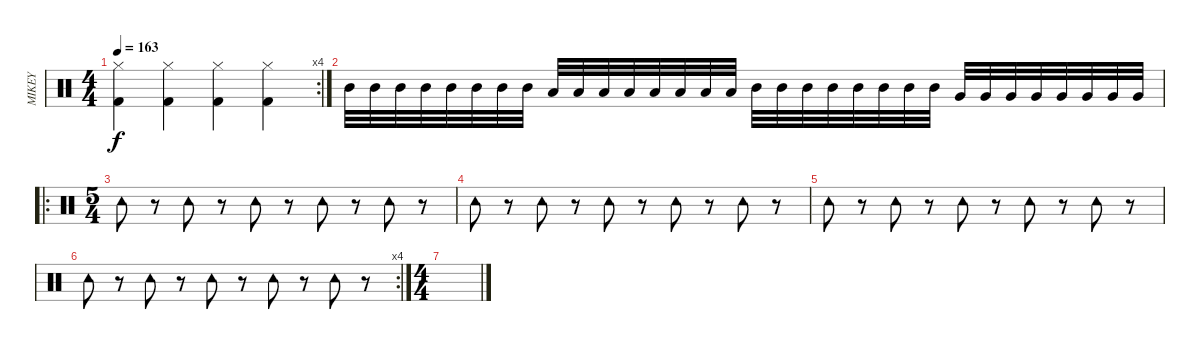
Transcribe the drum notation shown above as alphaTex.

\track ("MIKEY" "MIKEY") {instrument percussion}
\staff {score}
\articulation defaults
\rc 4
\ts (4 4)
\tempo 163
\clef neutral
\ks c
("Hi-Hat (closed)" "Kick (hit) 2").4{dy f} ("Hi-Hat (closed)" "Kick (hit) 2").4 ("Hi-Hat (closed)" "Kick (hit) 2").4 ("Hi-Hat (closed)" "Kick (hit) 2").4 |
"Mid Tom (hit)".32 "Mid Tom (hit)".32 "Mid Tom (hit)".32 "Mid Tom (hit)".32 "Mid Tom (hit)".32 "Mid Tom (hit)".32 "Mid Tom (hit)".32 "Mid Tom (hit)".32 "Low Tom (hit)".32 "Low Tom (hit)".32 "Low Tom (hit)".32 "Low Tom (hit)".32 "Low Tom (hit)".32 "Low Tom (hit)".32 "Low Tom (hit)".32 "Low Tom (hit)".32 "Mid Tom (hit)".32 "Mid Tom (hit)".32 "Mid Tom (hit)".32 "Mid Tom (hit)".32 "Mid Tom (hit)".32 "Mid Tom (hit)".32 "Mid Tom (hit)".32 "Mid Tom (hit)".32 "Very Low Tom (hit)".32 "Very Low Tom (hit)".32 "Very Low Tom (hit)".32 "Very Low Tom (hit)".32 "Very Low Tom (hit)".32 "Very Low Tom (hit)".32 "Very Low Tom (hit)".32 "Very Low Tom (hit)".32 |
\ro
\ts (5 4)
"Tambourine (hit)".8 r.8 "Tambourine (hit)".8 r.8 "Tambourine (hit)".8 r.8 "Tambourine (hit)".8 r.8 "Tambourine (hit)".8 r.8 |
"Tambourine (hit)".8 r.8 "Tambourine (hit)".8 r.8 "Tambourine (hit)".8 r.8 "Tambourine (hit)".8 r.8 "Tambourine (hit)".8 r.8 |
"Tambourine (hit)".8 r.8 "Tambourine (hit)".8 r.8 "Tambourine (hit)".8 r.8 "Tambourine (hit)".8 r.8 "Tambourine (hit)".8 r.8 |
\rc 4 "Tambourine (hit)".8
r.8 "Tambourine (hit)".8 r.8 "Tambourine (hit)".8 r.8 "Tambourine (hit)".8 r.8 "Tambourine (hit)".8 r.8 |
\ts (4 4)
